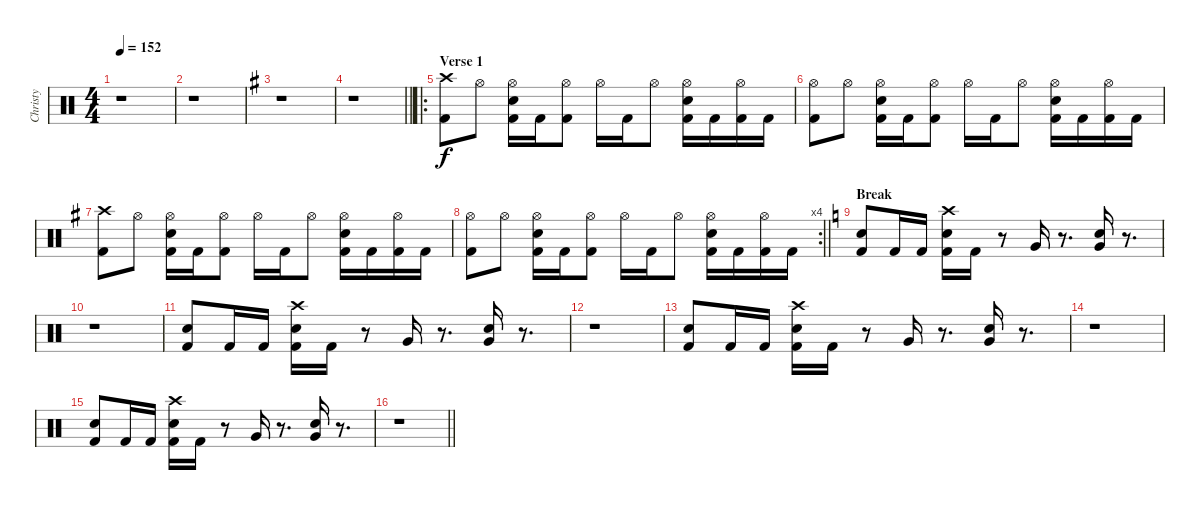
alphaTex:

\track ("Christy" "Christy") {instrument percussion}
\staff {score}
\articulation defaults
\ts (4 4)
\tempo 152
\clef neutral
\ks c
r.1{dy f} |
r.1 |
\ks g
r.1 |
\barLineRight lightlight
r.1 |
\ro
\section ("" "Verse 1")
("Crash high (hit)" "Kick (hit) 2").8 "Hi-Hat (open)".8 ("Hi-Hat (open)" "Snare (hit) 2" "Kick (hit) 2").16 "Kick (hit) 2".16 ("Hi-Hat (open)" "Kick (hit) 2").8 "Hi-Hat (open)".16 "Kick (hit) 2".16 "Hi-Hat (open)".8 ("Hi-Hat (open)" "Snare (hit) 2" "Kick (hit) 2").16 "Kick (hit) 2".16 ("Hi-Hat (open)" "Kick (hit) 2").16 "Kick (hit) 2".16 |
("Hi-Hat (open)" "Kick (hit) 2").8 "Hi-Hat (open)".8 ("Hi-Hat (open)" "Snare (hit) 2" "Kick (hit) 2").16 "Kick (hit) 2".16 ("Hi-Hat (open)" "Kick (hit) 2").8 "Hi-Hat (open)".16 "Kick (hit) 2".16 "Hi-Hat (open)".8 ("Hi-Hat (open)" "Snare (hit) 2" "Kick (hit) 2").16 "Kick (hit) 2".16 ("Hi-Hat (open)" "Kick (hit) 2").16 "Kick (hit) 2".16 |
("Crash high (hit)" "Kick (hit) 2").8 "Hi-Hat (open)".8 ("Hi-Hat (open)" "Snare (hit) 2" "Kick (hit) 2").16 "Kick (hit) 2".16 ("Hi-Hat (open)" "Kick (hit) 2").8 "Hi-Hat (open)".16 "Kick (hit) 2".16 "Hi-Hat (open)".8 ("Hi-Hat (open)" "Snare (hit) 2" "Kick (hit) 2").16 "Kick (hit) 2".16 ("Hi-Hat (open)" "Kick (hit) 2").16 "Kick (hit) 2".16 |
\rc 4
\barLineRight lightlight
("Hi-Hat (open)" "Kick (hit) 2").8 "Hi-Hat (open)".8 ("Hi-Hat (open)" "Snare (hit) 2" "Kick (hit) 2").16 "Kick (hit) 2".16 ("Hi-Hat (open)" "Kick (hit) 2").8 "Hi-Hat (open)".16 "Kick (hit) 2".16 "Hi-Hat (open)".8 ("Hi-Hat (open)" "Snare (hit) 2" "Kick (hit) 2").16 "Kick (hit) 2".16 ("Hi-Hat (open)" "Kick (hit) 2").16 "Kick (hit) 2".16 |
\section ("" "Break")
\ks c
("Snare (hit) 2" "Kick (hit) 2").8 "Kick (hit) 2".16 "Kick (hit) 2".16 ("Crash high (hit)" "Snare (hit) 2" "Kick (hit) 2").16 "Kick (hit) 2".16 r.8 "Very Low Tom (hit)".16 r.8{d} ("Snare (hit) 2" "Very Low Tom (hit)").16 r.8{d} |
r.1 |
("Snare (hit) 2" "Kick (hit) 2").8 "Kick (hit) 2".16 "Kick (hit) 2".16 ("Crash high (hit)" "Snare (hit) 2" "Kick (hit) 2").16 "Kick (hit) 2".16 r.8 "Very Low Tom (hit)".16 r.8{d} ("Snare (hit) 2" "Very Low Tom (hit)").16 r.8{d} |
r.1 |
("Snare (hit) 2" "Kick (hit) 2").8 "Kick (hit) 2".16 "Kick (hit) 2".16 ("Crash high (hit)" "Snare (hit) 2" "Kick (hit) 2").16 "Kick (hit) 2".16 r.8 "Very Low Tom (hit)".16 r.8{d} ("Snare (hit) 2" "Very Low Tom (hit)").16 r.8{d} |
r.1 |
("Snare (hit) 2" "Kick (hit) 2").8 "Kick (hit) 2".16 "Kick (hit) 2".16 ("Crash high (hit)" "Snare (hit) 2" "Kick (hit) 2").16 "Kick (hit) 2".16 r.8 "Very Low Tom (hit)".16 r.8{d} ("Snare (hit) 2" "Very Low Tom (hit)").16 r.8{d} |
\barLineRight lightlight
r.1
